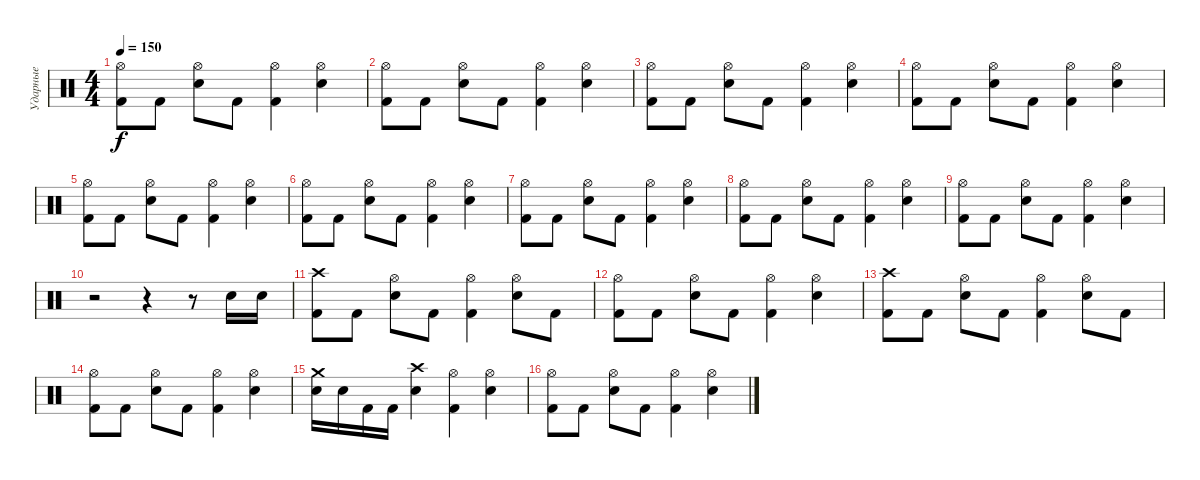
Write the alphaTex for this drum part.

\track ("Ударные" "Ударные") {instrument percussion}
\staff {score}
\articulation defaults
\ts (4 4)
\tempo 150
\clef neutral
\ks c
("Hi-Hat (open)" "Kick (hit) 2").8{dy f} "Kick (hit) 2".8 ("Hi-Hat (open)" "Electric Snare (hit)").8 "Kick (hit) 2".8 ("Hi-Hat (open)" "Kick (hit) 2").4 ("Hi-Hat (open)" "Electric Snare (hit)").4 |
("Hi-Hat (open)" "Kick (hit) 2").8 "Kick (hit) 2".8 ("Hi-Hat (open)" "Electric Snare (hit)").8 "Kick (hit) 2".8 ("Hi-Hat (open)" "Kick (hit) 2").4 ("Hi-Hat (open)" "Electric Snare (hit)").4 |
("Hi-Hat (open)" "Kick (hit) 2").8 "Kick (hit) 2".8 ("Hi-Hat (open)" "Electric Snare (hit)").8 "Kick (hit) 2".8 ("Hi-Hat (open)" "Kick (hit) 2").4 ("Hi-Hat (open)" "Electric Snare (hit)").4 |
("Hi-Hat (open)" "Kick (hit) 2").8 "Kick (hit) 2".8 ("Hi-Hat (open)" "Electric Snare (hit)").8 "Kick (hit) 2".8 ("Hi-Hat (open)" "Kick (hit) 2").4 ("Hi-Hat (open)" "Electric Snare (hit)").4 |
("Hi-Hat (open)" "Kick (hit) 2").8 "Kick (hit) 2".8 ("Hi-Hat (open)" "Electric Snare (hit)").8 "Kick (hit) 2".8 ("Hi-Hat (open)" "Kick (hit) 2").4 ("Hi-Hat (open)" "Electric Snare (hit)").4 |
("Hi-Hat (open)" "Kick (hit) 2").8 "Kick (hit) 2".8 ("Hi-Hat (open)" "Electric Snare (hit)").8 "Kick (hit) 2".8 ("Hi-Hat (open)" "Kick (hit) 2").4 ("Hi-Hat (open)" "Electric Snare (hit)").4 |
("Hi-Hat (open)" "Kick (hit) 2").8 "Kick (hit) 2".8 ("Hi-Hat (open)" "Electric Snare (hit)").8 "Kick (hit) 2".8 ("Hi-Hat (open)" "Kick (hit) 2").4 ("Hi-Hat (open)" "Electric Snare (hit)").4 |
("Hi-Hat (open)" "Kick (hit) 2").8 "Kick (hit) 2".8 ("Hi-Hat (open)" "Electric Snare (hit)").8 "Kick (hit) 2".8 ("Hi-Hat (open)" "Kick (hit) 2").4 ("Hi-Hat (open)" "Electric Snare (hit)").4 |
("Hi-Hat (open)" "Kick (hit) 2").8 "Kick (hit) 2".8 ("Hi-Hat (open)" "Electric Snare (hit)").8 "Kick (hit) 2".8 ("Hi-Hat (open)" "Kick (hit) 2").4 ("Hi-Hat (open)" "Electric Snare (hit)").4 |
r.2 r.4 r.8 "Electric Snare (hit)".16 "Electric Snare (hit)".16 |
("Crash high (hit)" "Kick (hit) 2").8 "Kick (hit) 2".8 ("Hi-Hat (open)" "Electric Snare (hit)").8 "Kick (hit) 2".8 ("Hi-Hat (open)" "Kick (hit) 2").4 ("Hi-Hat (open)" "Electric Snare (hit)").8 "Kick (hit) 2".8 |
("Hi-Hat (open)" "Kick (hit) 2").8 "Kick (hit) 2".8 ("Hi-Hat (open)" "Electric Snare (hit)").8 "Kick (hit) 2".8 ("Hi-Hat (open)" "Kick (hit) 2").4 ("Hi-Hat (open)" "Electric Snare (hit)").4 |
("Crash high (hit)" "Kick (hit) 2").8 "Kick (hit) 2".8 ("Hi-Hat (open)" "Electric Snare (hit)").8 "Kick (hit) 2".8 ("Hi-Hat (open)" "Kick (hit) 2").4 ("Hi-Hat (open)" "Electric Snare (hit)").8 "Kick (hit) 2".8 |
("Hi-Hat (open)" "Kick (hit) 2").8 "Kick (hit) 2".8 ("Hi-Hat (open)" "Electric Snare (hit)").8 "Kick (hit) 2".8 ("Hi-Hat (open)" "Kick (hit) 2").4 ("Hi-Hat (open)" "Electric Snare (hit)").4 |
("Crash medium (hit)" "Electric Snare (hit)").16 "Electric Snare (hit)".16 "Kick (hit) 2".16 "Kick (hit) 2".16 ("Crash high (hit)" "Electric Snare (hit)").4 ("Hi-Hat (open)" "Kick (hit) 2").4 ("Hi-Hat (open)" "Electric Snare (hit)").4 |
("Hi-Hat (open)" "Kick (hit) 2").8 "Kick (hit) 2".8 ("Hi-Hat (open)" "Electric Snare (hit)").8 "Kick (hit) 2".8 ("Hi-Hat (open)" "Kick (hit) 2").4 ("Hi-Hat (open)" "Electric Snare (hit)").4
